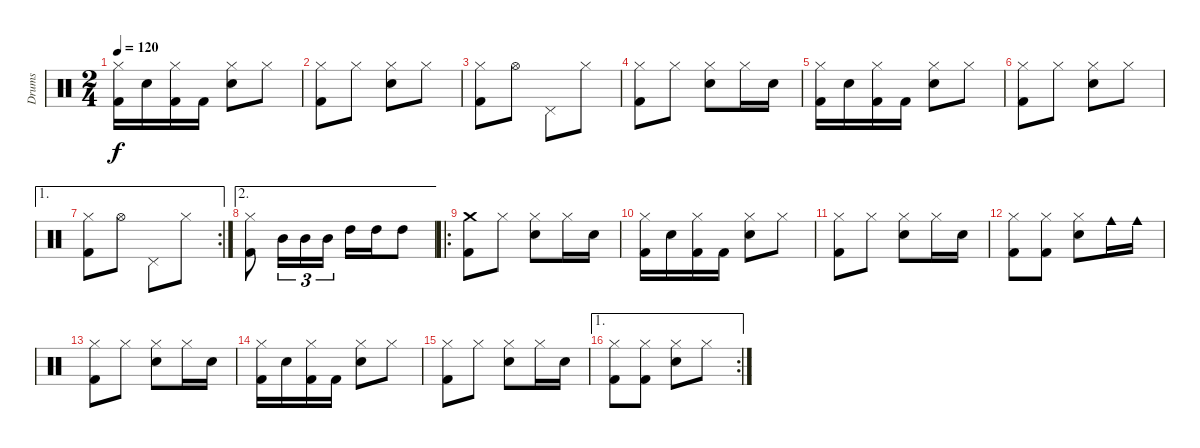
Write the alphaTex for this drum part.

\track ("Drums" "Drums") {instrument percussion}
\staff {score}
\articulation defaults
\ts (2 4)
\tempo 120
\clef neutral
\ks aminor
("Kick (hit) 2" "Hi-Hat (closed)").16{dy f} "Electric Snare (hit)".16 ("Kick (hit) 2" "Hi-Hat (closed)").16 "Kick (hit) 2".16 ("Electric Snare (hit)" "Hi-Hat (closed)").8 "Hi-Hat (closed)".8 |
("Hi-Hat (closed)" "Kick (hit) 2").8 "Hi-Hat (closed)".8 ("Hi-Hat (closed)" "Electric Snare (hit)").8 "Hi-Hat (closed)".8 |
("Kick (hit) 2" "Hi-Hat (closed)").8 "Hi-Hat (open)".8 "Pedal Hi-Hat (hit)".8 "Hi-Hat (closed)".8 |
("Hi-Hat (closed)" "Kick (hit) 2").8 "Hi-Hat (closed)".8 ("Hi-Hat (closed)" "Electric Snare (hit)").8 "Hi-Hat (closed)".16 "Electric Snare (hit)".16 |
("Kick (hit) 2" "Hi-Hat (closed)").16 "Electric Snare (hit)".16 ("Kick (hit) 2" "Hi-Hat (closed)").16 "Kick (hit) 2".16 ("Electric Snare (hit)" "Hi-Hat (closed)").8 "Hi-Hat (closed)".8 |
("Hi-Hat (closed)" "Kick (hit) 2").8 "Hi-Hat (closed)".8 ("Hi-Hat (closed)" "Electric Snare (hit)").8 "Hi-Hat (closed)".8 |
\ae 1
\rc 2
("Kick (hit) 2" "Hi-Hat (closed)").8 "Hi-Hat (open)".8 "Pedal Hi-Hat (hit)".8 "Hi-Hat (closed)".8 |
\ae 2
("Hi-Hat (closed)" "Kick (hit) 2").8 "Mid Tom (hit)".16{tu (3 2)} "Mid Tom (hit)".16{tu (3 2)} "Mid Tom (hit)".16{tu (3 2)} "High Tom (hit)".16 "High Tom (hit)".16 "High Tom (hit)".8 |
\ro
("Crash medium (hit)" "Kick (hit) 2").8 "Hi-Hat (closed)".8 ("Hi-Hat (closed)" "Electric Snare (hit)").8 "Hi-Hat (closed)".16 "Electric Snare (hit)".16 |
("Kick (hit) 2" "Hi-Hat (closed)").16 "Electric Snare (hit)".16 ("Kick (hit) 2" "Hi-Hat (closed)").16 "Kick (hit) 2".16 ("Electric Snare (hit)" "Hi-Hat (closed)").8 "Hi-Hat (closed)".8 |
("Hi-Hat (closed)" "Kick (hit) 2").8 "Hi-Hat (closed)".8 ("Hi-Hat (closed)" "Electric Snare (hit)").8 "Hi-Hat (closed)".16 "Electric Snare (hit)".16 |
("Kick (hit) 2" "Hi-Hat (closed)").8 ("Kick (hit) 2" "Hi-Hat (closed)").8 ("Electric Snare (hit)" "Hi-Hat (closed)").8 "Cowbell medium (hit)".16 "Cowbell medium (hit)".16 |
("Hi-Hat (closed)" "Kick (hit) 2").8 "Hi-Hat (closed)".8 ("Hi-Hat (closed)" "Electric Snare (hit)").8 "Hi-Hat (closed)".16 "Electric Snare (hit)".16 |
("Kick (hit) 2" "Hi-Hat (closed)").16 "Electric Snare (hit)".16 ("Kick (hit) 2" "Hi-Hat (closed)").16 "Kick (hit) 2".16 ("Electric Snare (hit)" "Hi-Hat (closed)").8 "Hi-Hat (closed)".8 |
("Hi-Hat (closed)" "Kick (hit) 2").8 "Hi-Hat (closed)".8 ("Hi-Hat (closed)" "Electric Snare (hit)").8 "Hi-Hat (closed)".16 "Electric Snare (hit)".16 |
\ae 1
\rc 2
("Kick (hit) 2" "Hi-Hat (closed)").8 ("Kick (hit) 2" "Hi-Hat (closed)").8 ("Electric Snare (hit)" "Hi-Hat (closed)").8 "Hi-Hat (closed)".8
